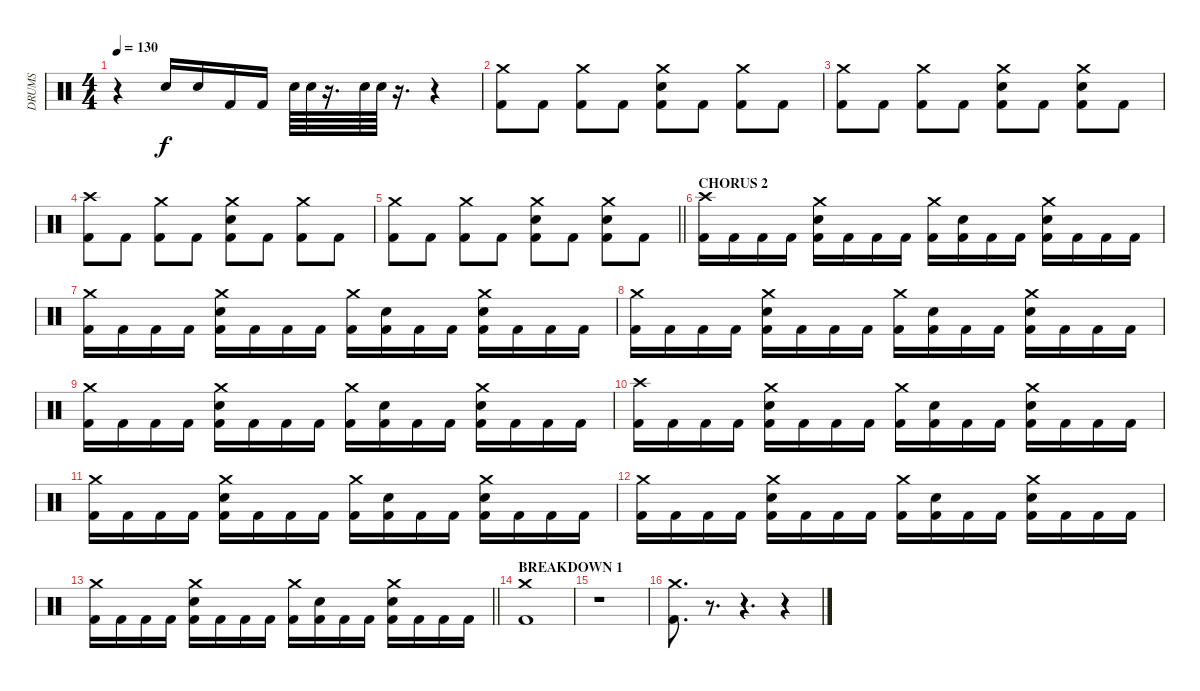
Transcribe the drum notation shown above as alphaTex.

\track ("DRUMS" "DRUMS") {instrument percussion}
\staff {score}
\articulation defaults
\ts (4 4)
\tempo 130
\clef neutral
\ks c
r.4{dy fff} "Electric Snare (hit)".16{dy f} "Electric Snare (hit)".16 "Kick (hit) 2".16 "Kick (hit) 2".16 "Electric Snare (hit)".64 "Electric Snare (hit)".64 r.16{d} "Electric Snare (hit)".64 "Electric Snare (hit)".64 r.16{d} r.4 |
("Crash medium (hit)" "Kick (hit) 2").8 "Kick (hit) 2".8 ("Crash medium (hit)" "Kick (hit) 2").8 "Kick (hit) 2".8 ("Crash medium (hit)" "Electric Snare (hit)" "Kick (hit) 2").8 "Kick (hit) 2".8 ("Crash medium (hit)" "Kick (hit) 2").8 "Kick (hit) 2".8 |
("Crash medium (hit)" "Kick (hit) 2").8 "Kick (hit) 2".8 ("Crash medium (hit)" "Kick (hit) 2").8 "Kick (hit) 2".8 ("Crash medium (hit)" "Electric Snare (hit)" "Kick (hit) 2").8 "Kick (hit) 2".8 ("Crash medium (hit)" "Electric Snare (hit)" "Kick (hit) 2").8 "Kick (hit) 2".8 |
("Crash high (hit)" "Kick (hit) 2").8 "Kick (hit) 2".8 ("Crash medium (hit)" "Kick (hit) 2").8 "Kick (hit) 2".8 ("Crash medium (hit)" "Electric Snare (hit)" "Kick (hit) 2").8 "Kick (hit) 2".8 ("Crash medium (hit)" "Kick (hit) 2").8 "Kick (hit) 2".8 |
\barLineRight lightlight
("Crash medium (hit)" "Kick (hit) 2").8 "Kick (hit) 2".8 ("Crash medium (hit)" "Kick (hit) 2").8 "Kick (hit) 2".8 ("Crash medium (hit)" "Electric Snare (hit)" "Kick (hit) 2").8 "Kick (hit) 2".8 ("Crash medium (hit)" "Electric Snare (hit)" "Kick (hit) 2").8 "Kick (hit) 2".8 |
\section ("" "CHORUS 2")
("Crash high (hit)" "Kick (hit) 2").16 "Kick (hit) 2".16 "Kick (hit) 2".16 "Kick (hit) 2".16 ("Crash medium (hit)" "Electric Snare (hit)" "Kick (hit) 2").16 "Kick (hit) 2".16 "Kick (hit) 2".16 "Kick (hit) 2".16 ("Crash medium (hit)" "Kick (hit) 2").16 ("Electric Snare (hit)" "Kick (hit) 2").16 "Kick (hit) 2".16 "Kick (hit) 2".16 ("Crash medium (hit)" "Electric Snare (hit)" "Kick (hit) 2").16 "Kick (hit) 2".16 "Kick (hit) 2".16 "Kick (hit) 2".16 |
("Crash medium (hit)" "Kick (hit) 2").16 "Kick (hit) 2".16 "Kick (hit) 2".16 "Kick (hit) 2".16 ("Crash medium (hit)" "Electric Snare (hit)" "Kick (hit) 2").16 "Kick (hit) 2".16 "Kick (hit) 2".16 "Kick (hit) 2".16 ("Crash medium (hit)" "Kick (hit) 2").16 ("Electric Snare (hit)" "Kick (hit) 2").16 "Kick (hit) 2".16 "Kick (hit) 2".16 ("Crash medium (hit)" "Electric Snare (hit)" "Kick (hit) 2").16 "Kick (hit) 2".16 "Kick (hit) 2".16 "Kick (hit) 2".16 |
("Crash medium (hit)" "Kick (hit) 2").16 "Kick (hit) 2".16 "Kick (hit) 2".16 "Kick (hit) 2".16 ("Crash medium (hit)" "Electric Snare (hit)" "Kick (hit) 2").16 "Kick (hit) 2".16 "Kick (hit) 2".16 "Kick (hit) 2".16 ("Crash medium (hit)" "Kick (hit) 2").16 ("Electric Snare (hit)" "Kick (hit) 2").16 "Kick (hit) 2".16 "Kick (hit) 2".16 ("Crash medium (hit)" "Electric Snare (hit)" "Kick (hit) 2").16 "Kick (hit) 2".16 "Kick (hit) 2".16 "Kick (hit) 2".16 |
("Crash medium (hit)" "Kick (hit) 2").16 "Kick (hit) 2".16 "Kick (hit) 2".16 "Kick (hit) 2".16 ("Crash medium (hit)" "Electric Snare (hit)" "Kick (hit) 2").16 "Kick (hit) 2".16 "Kick (hit) 2".16 "Kick (hit) 2".16 ("Crash medium (hit)" "Kick (hit) 2").16 ("Electric Snare (hit)" "Kick (hit) 2").16 "Kick (hit) 2".16 "Kick (hit) 2".16 ("Crash medium (hit)" "Electric Snare (hit)" "Kick (hit) 2").16 "Kick (hit) 2".16 "Kick (hit) 2".16 "Kick (hit) 2".16 |
("Crash high (hit)" "Kick (hit) 2").16 "Kick (hit) 2".16 "Kick (hit) 2".16 "Kick (hit) 2".16 ("Crash medium (hit)" "Electric Snare (hit)" "Kick (hit) 2").16 "Kick (hit) 2".16 "Kick (hit) 2".16 "Kick (hit) 2".16 ("Crash medium (hit)" "Kick (hit) 2").16 ("Electric Snare (hit)" "Kick (hit) 2").16 "Kick (hit) 2".16 "Kick (hit) 2".16 ("Crash medium (hit)" "Electric Snare (hit)" "Kick (hit) 2").16 "Kick (hit) 2".16 "Kick (hit) 2".16 "Kick (hit) 2".16 |
("Crash medium (hit)" "Kick (hit) 2").16 "Kick (hit) 2".16 "Kick (hit) 2".16 "Kick (hit) 2".16 ("Crash medium (hit)" "Electric Snare (hit)" "Kick (hit) 2").16 "Kick (hit) 2".16 "Kick (hit) 2".16 "Kick (hit) 2".16 ("Crash medium (hit)" "Kick (hit) 2").16 ("Electric Snare (hit)" "Kick (hit) 2").16 "Kick (hit) 2".16 "Kick (hit) 2".16 ("Crash medium (hit)" "Electric Snare (hit)" "Kick (hit) 2").16 "Kick (hit) 2".16 "Kick (hit) 2".16 "Kick (hit) 2".16 |
("Crash medium (hit)" "Kick (hit) 2").16 "Kick (hit) 2".16 "Kick (hit) 2".16 "Kick (hit) 2".16 ("Crash medium (hit)" "Electric Snare (hit)" "Kick (hit) 2").16 "Kick (hit) 2".16 "Kick (hit) 2".16 "Kick (hit) 2".16 ("Crash medium (hit)" "Kick (hit) 2").16 ("Electric Snare (hit)" "Kick (hit) 2").16 "Kick (hit) 2".16 "Kick (hit) 2".16 ("Crash medium (hit)" "Electric Snare (hit)" "Kick (hit) 2").16 "Kick (hit) 2".16 "Kick (hit) 2".16 "Kick (hit) 2".16 |
\barLineRight lightlight
("Crash medium (hit)" "Kick (hit) 2").16 "Kick (hit) 2".16 "Kick (hit) 2".16 "Kick (hit) 2".16 ("Crash medium (hit)" "Electric Snare (hit)" "Kick (hit) 2").16 "Kick (hit) 2".16 "Kick (hit) 2".16 "Kick (hit) 2".16 ("Crash medium (hit)" "Kick (hit) 2").16 ("Electric Snare (hit)" "Kick (hit) 2").16 "Kick (hit) 2".16 "Kick (hit) 2".16 ("Crash medium (hit)" "Electric Snare (hit)" "Kick (hit) 2").16 "Kick (hit) 2".16 "Kick (hit) 2".16 "Kick (hit) 2".16 |
\section ("" "BREAKDOWN 1")
("Crash medium (hit)" "Kick (hit) 2").1 |
r.1 |
("Crash medium (hit)" "Kick (hit) 2").8{d} r.8{d} r.4{d} r.4
